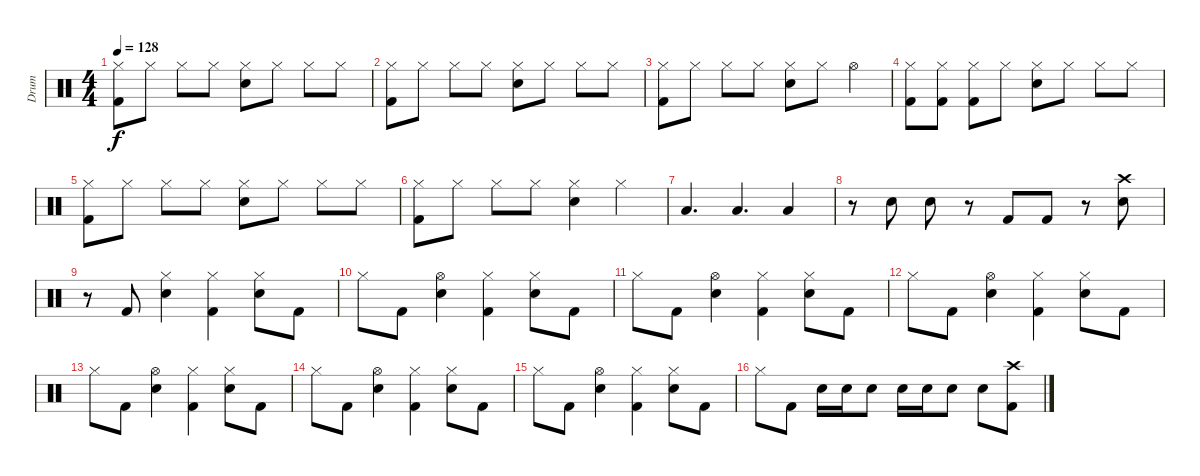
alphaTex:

\track ("Drum" "Drum") {instrument percussion}
\staff {score}
\articulation defaults
\ts (4 4)
\tempo 128
\clef neutral
\ks c
("Hi-Hat (closed)" "Kick (hit) 2").8{dy f} "Hi-Hat (closed)".8 "Hi-Hat (closed)".8 "Hi-Hat (closed)".8 ("Hi-Hat (closed)" "Snare (hit) 2").8 "Hi-Hat (closed)".8 "Hi-Hat (closed)".8 "Hi-Hat (closed)".8 |
("Hi-Hat (closed)" "Kick (hit) 2").8 "Hi-Hat (closed)".8 "Hi-Hat (closed)".8 "Hi-Hat (closed)".8 ("Hi-Hat (closed)" "Snare (hit) 2").8 "Hi-Hat (closed)".8 "Hi-Hat (closed)".8 "Hi-Hat (closed)".8 |
("Hi-Hat (closed)" "Kick (hit) 2").8 "Hi-Hat (closed)".8 "Hi-Hat (closed)".8 "Hi-Hat (closed)".8 ("Hi-Hat (closed)" "Snare (hit) 2").8 "Hi-Hat (closed)".8 "Hi-Hat (open)".4 |
("Hi-Hat (closed)" "Kick (hit) 2").8 ("Hi-Hat (closed)" "Kick (hit) 2").8 ("Hi-Hat (closed)" "Kick (hit) 2").8 "Hi-Hat (closed)".8 ("Hi-Hat (closed)" "Snare (hit) 2").8 "Hi-Hat (closed)".8 "Hi-Hat (closed)".8 "Hi-Hat (closed)".8 |
("Hi-Hat (closed)" "Kick (hit) 2").8 "Hi-Hat (closed)".8 "Hi-Hat (closed)".8 "Hi-Hat (closed)".8 ("Hi-Hat (closed)" "Snare (hit) 2").8 "Hi-Hat (closed)".8 "Hi-Hat (closed)".8 "Hi-Hat (closed)".8 |
("Hi-Hat (closed)" "Kick (hit) 2").8 "Hi-Hat (closed)".8 "Hi-Hat (closed)".8 "Hi-Hat (closed)".8 ("Hi-Hat (closed)" "Snare (hit) 2").4 "Hi-Hat (closed)".4 |
"Low Tom (hit)".4{d} "Low Tom (hit)".4{d} "Low Tom (hit)".4 |
r.8 "Snare (hit) 2".8 "Snare (hit) 2".8 r.8 "Kick (hit) 2".8 "Kick (hit) 2".8 r.8 ("Crash high (hit)" "Snare (hit) 2").8 |
r.8 "Kick (hit) 2".8 ("Hi-Hat (closed)" "Snare (hit) 2").4 ("Hi-Hat (closed)" "Kick (hit) 2").4 ("Hi-Hat (closed)" "Snare (hit) 2").8 "Kick (hit) 2".8 |
"Hi-Hat (closed)".8 "Kick (hit) 2".8 ("Hi-Hat (open)" "Snare (hit) 2").4 ("Hi-Hat (closed)" "Kick (hit) 2").4 ("Hi-Hat (closed)" "Snare (hit) 2").8 "Kick (hit) 2".8 |
"Hi-Hat (closed)".8 "Kick (hit) 2".8 ("Hi-Hat (open)" "Snare (hit) 2").4 ("Hi-Hat (closed)" "Kick (hit) 2").4 ("Hi-Hat (closed)" "Snare (hit) 2").8 "Kick (hit) 2".8 |
"Hi-Hat (closed)".8 "Kick (hit) 2".8 ("Hi-Hat (open)" "Snare (hit) 2").4 ("Hi-Hat (closed)" "Kick (hit) 2").4 ("Hi-Hat (closed)" "Snare (hit) 2").8 "Kick (hit) 2".8 |
"Hi-Hat (closed)".8 "Kick (hit) 2".8 ("Hi-Hat (open)" "Snare (hit) 2").4 ("Hi-Hat (closed)" "Kick (hit) 2").4 ("Hi-Hat (closed)" "Snare (hit) 2").8 "Kick (hit) 2".8 |
"Hi-Hat (closed)".8 "Kick (hit) 2".8 ("Hi-Hat (open)" "Snare (hit) 2").4 ("Hi-Hat (closed)" "Kick (hit) 2").4 ("Hi-Hat (closed)" "Snare (hit) 2").8 "Kick (hit) 2".8 |
"Hi-Hat (closed)".8 "Kick (hit) 2".8 ("Hi-Hat (open)" "Snare (hit) 2").4 ("Hi-Hat (closed)" "Kick (hit) 2").4 ("Hi-Hat (closed)" "Snare (hit) 2").8 "Kick (hit) 2".8 |
"Hi-Hat (closed)".8 "Kick (hit) 2".8 "Snare (hit) 2".16 "Snare (hit) 2".16 "Snare (hit) 2".8 "Snare (hit) 2".16 "Snare (hit) 2".16 "Snare (hit) 2".8 "Snare (hit) 2".8 ("Crash high (hit)" "Kick (hit) 2").8
